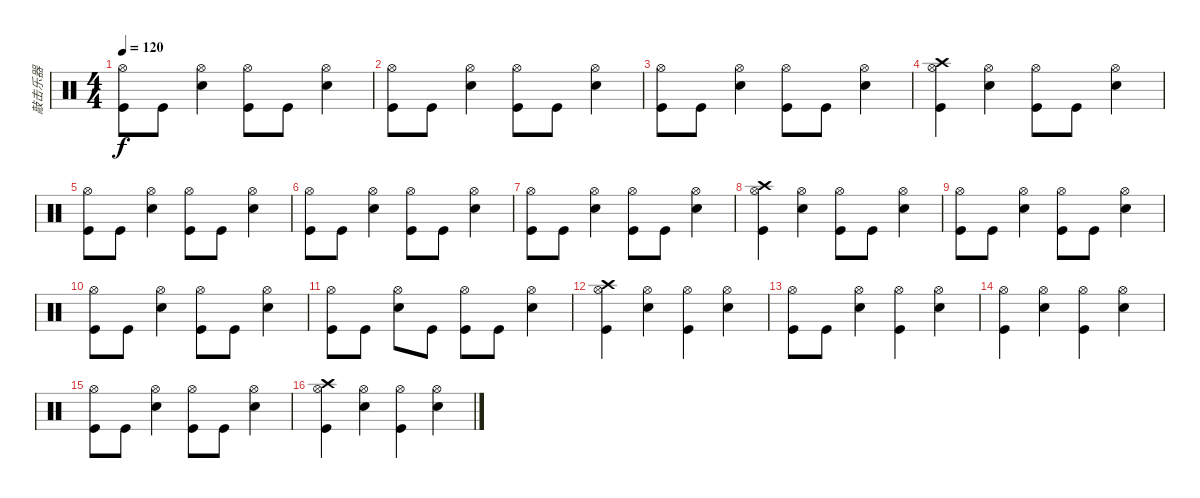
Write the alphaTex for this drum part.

\track ("敲击乐器" "敲击乐器") {instrument percussion}
\staff {score}
\articulation defaults
\ts (4 4)
\tempo 120
\clef neutral
\ks c
("Hi-Hat (open)" "Kick (hit)").8{dy f} "Kick (hit)".8 ("Hi-Hat (open)" "Snare (hit) 2").4 ("Hi-Hat (open)" "Kick (hit)").8 "Kick (hit)".8 ("Hi-Hat (open)" "Snare (hit) 2").4 |
("Hi-Hat (open)" "Kick (hit)").8 "Kick (hit)".8 ("Hi-Hat (open)" "Snare (hit) 2").4 ("Hi-Hat (open)" "Kick (hit)").8 "Kick (hit)".8 ("Hi-Hat (open)" "Snare (hit) 2").4 |
("Hi-Hat (open)" "Kick (hit)").8 "Kick (hit)".8 ("Hi-Hat (open)" "Snare (hit) 2").4 ("Hi-Hat (open)" "Kick (hit)").8 "Kick (hit)".8 ("Hi-Hat (open)" "Snare (hit) 2").4 |
("Crash high (hit)" "Hi-Hat (open)" "Kick (hit)").4 ("Hi-Hat (open)" "Snare (hit) 2").4 ("Hi-Hat (open)" "Kick (hit)").8 "Kick (hit)".8 ("Hi-Hat (open)" "Snare (hit) 2").4 |
("Hi-Hat (open)" "Kick (hit)").8 "Kick (hit)".8 ("Hi-Hat (open)" "Snare (hit) 2").4 ("Hi-Hat (open)" "Kick (hit)").8 "Kick (hit)".8 ("Hi-Hat (open)" "Snare (hit) 2").4 |
("Hi-Hat (open)" "Kick (hit)").8 "Kick (hit)".8 ("Hi-Hat (open)" "Snare (hit) 2").4 ("Hi-Hat (open)" "Kick (hit)").8 "Kick (hit)".8 ("Hi-Hat (open)" "Snare (hit) 2").4 |
("Hi-Hat (open)" "Kick (hit)").8 "Kick (hit)".8 ("Hi-Hat (open)" "Snare (hit) 2").4 ("Hi-Hat (open)" "Kick (hit)").8 "Kick (hit)".8 ("Hi-Hat (open)" "Snare (hit) 2").4 |
("Crash high (hit)" "Hi-Hat (open)" "Kick (hit)").4 ("Hi-Hat (open)" "Snare (hit) 2").4 ("Hi-Hat (open)" "Kick (hit)").8 "Kick (hit)".8 ("Hi-Hat (open)" "Snare (hit) 2").4 |
("Hi-Hat (open)" "Kick (hit)").8 "Kick (hit)".8 ("Hi-Hat (open)" "Snare (hit) 2").4 ("Hi-Hat (open)" "Kick (hit)").8 "Kick (hit)".8 ("Hi-Hat (open)" "Snare (hit) 2").4 |
("Hi-Hat (open)" "Kick (hit)").8 "Kick (hit)".8 ("Hi-Hat (open)" "Snare (hit) 2").4 ("Hi-Hat (open)" "Kick (hit)").8 "Kick (hit)".8 ("Hi-Hat (open)" "Snare (hit) 2").4 |
("Hi-Hat (open)" "Kick (hit)").8 "Kick (hit)".8 ("Hi-Hat (open)" "Snare (hit) 2").8 "Kick (hit)".8 ("Hi-Hat (open)" "Kick (hit)").8 "Kick (hit)".8 ("Hi-Hat (open)" "Snare (hit) 2").4 |
("Crash high (hit)" "Hi-Hat (open)" "Kick (hit)").4 ("Hi-Hat (open)" "Snare (hit) 2").4 ("Hi-Hat (open)" "Kick (hit)").4 ("Hi-Hat (open)" "Snare (hit) 2").4 |
("Hi-Hat (open)" "Kick (hit)").8 "Kick (hit)".8 ("Hi-Hat (open)" "Snare (hit) 2").4 ("Hi-Hat (open)" "Kick (hit)").4 ("Hi-Hat (open)" "Snare (hit) 2").4 |
("Hi-Hat (open)" "Kick (hit)").4 ("Hi-Hat (open)" "Snare (hit) 2").4 ("Hi-Hat (open)" "Kick (hit)").4 ("Hi-Hat (open)" "Snare (hit) 2").4 |
("Hi-Hat (open)" "Kick (hit)").8 "Kick (hit)".8 ("Hi-Hat (open)" "Snare (hit) 2").4 ("Hi-Hat (open)" "Kick (hit)").8 "Kick (hit)".8 ("Hi-Hat (open)" "Snare (hit) 2").4 |
("Crash high (hit)" "Hi-Hat (open)" "Kick (hit)").4 ("Hi-Hat (open)" "Snare (hit) 2").4 ("Hi-Hat (open)" "Kick (hit)").4 ("Hi-Hat (open)" "Snare (hit) 2").4
